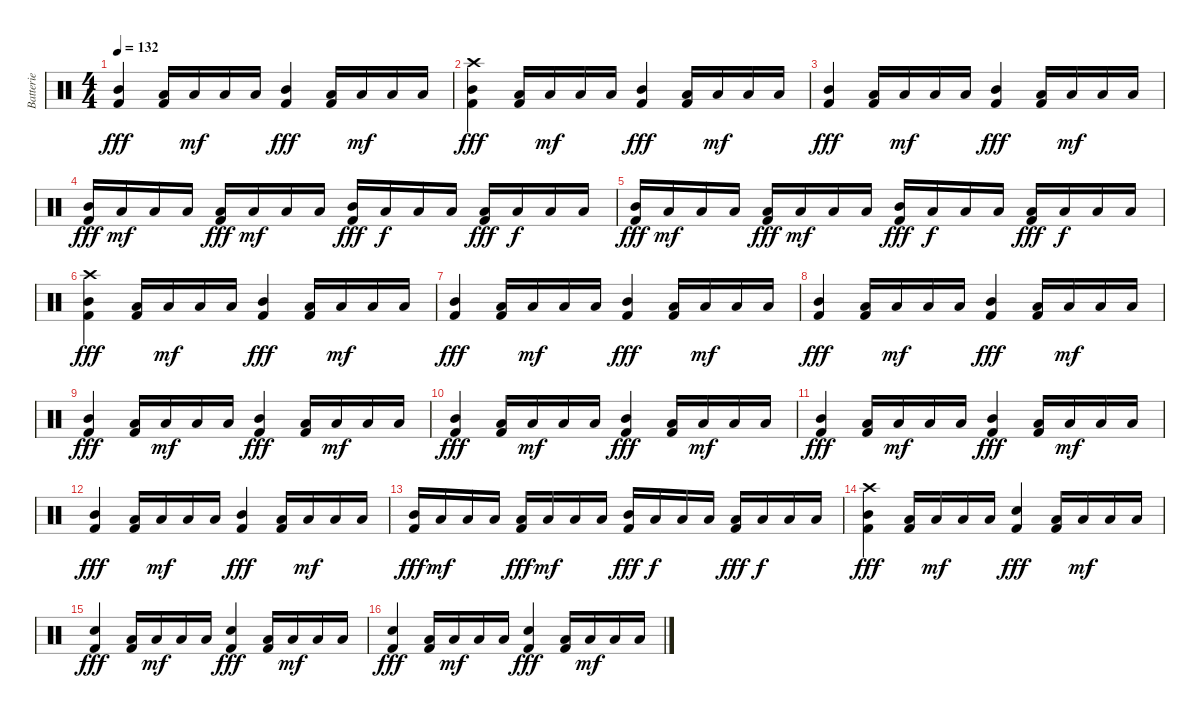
\track ("Batterie" "Batterie") {instrument percussion}
\staff {score}
\articulation defaults
\ts (4 4)
\tempo 132
\clef neutral
\ks c
("Mid Tom (hit)" "Kick (hit) 2").4{dy fff} ("Low Tom (hit)" "Kick (hit) 2").16 "Low Tom (hit)".16{dy mf} "Low Tom (hit)".16 "Low Tom (hit)".16 ("Mid Tom (hit)" "Kick (hit) 2").4{dy fff} ("Low Tom (hit)" "Kick (hit) 2").16 "Low Tom (hit)".16{dy mf} "Low Tom (hit)".16 "Low Tom (hit)".16 |
("Crash high (hit)" "Mid Tom (hit)" "Kick (hit) 2").4{dy fff} ("Low Tom (hit)" "Kick (hit) 2").16 "Low Tom (hit)".16{dy mf} "Low Tom (hit)".16 "Low Tom (hit)".16 ("Mid Tom (hit)" "Kick (hit) 2").4{dy fff} ("Low Tom (hit)" "Kick (hit) 2").16 "Low Tom (hit)".16{dy mf} "Low Tom (hit)".16 "Low Tom (hit)".16 |
("Mid Tom (hit)" "Kick (hit) 2").4{dy fff} ("Low Tom (hit)" "Kick (hit) 2").16 "Low Tom (hit)".16{dy mf} "Low Tom (hit)".16 "Low Tom (hit)".16 ("Mid Tom (hit)" "Kick (hit) 2").4{dy fff} ("Low Tom (hit)" "Kick (hit) 2").16 "Low Tom (hit)".16{dy mf} "Low Tom (hit)".16 "Low Tom (hit)".16 |
("Mid Tom (hit)" "Kick (hit) 2").16{dy fff} "Low Tom (hit)".16{dy mf} "Low Tom (hit)".16 "Low Tom (hit)".16 ("Low Tom (hit)" "Kick (hit) 2").16{dy fff} "Low Tom (hit)".16{dy mf} "Low Tom (hit)".16 "Low Tom (hit)".16 ("Mid Tom (hit)" "Kick (hit) 2").16{dy fff} "Low Tom (hit)".16{dy f} "Low Tom (hit)".16 "Low Tom (hit)".16 ("Low Tom (hit)" "Kick (hit) 2").16{dy fff} "Low Tom (hit)".16{dy f} "Low Tom (hit)".16 "Low Tom (hit)".16 |
("Mid Tom (hit)" "Kick (hit) 2").16{dy fff} "Low Tom (hit)".16{dy mf} "Low Tom (hit)".16 "Low Tom (hit)".16 ("Low Tom (hit)" "Kick (hit) 2").16{dy fff} "Low Tom (hit)".16{dy mf} "Low Tom (hit)".16 "Low Tom (hit)".16 ("Mid Tom (hit)" "Kick (hit) 2").16{dy fff} "Low Tom (hit)".16{dy f} "Low Tom (hit)".16 "Low Tom (hit)".16 ("Low Tom (hit)" "Kick (hit) 2").16{dy fff} "Low Tom (hit)".16{dy f} "Low Tom (hit)".16 "Low Tom (hit)".16 |
("Crash high (hit)" "Mid Tom (hit)" "Kick (hit) 2").4{dy fff} ("Low Tom (hit)" "Kick (hit) 2").16 "Low Tom (hit)".16{dy mf} "Low Tom (hit)".16 "Low Tom (hit)".16 ("Mid Tom (hit)" "Kick (hit) 2").4{dy fff} ("Low Tom (hit)" "Kick (hit) 2").16 "Low Tom (hit)".16{dy mf} "Low Tom (hit)".16 "Low Tom (hit)".16 |
("Mid Tom (hit)" "Kick (hit) 2").4{dy fff} ("Low Tom (hit)" "Kick (hit) 2").16 "Low Tom (hit)".16{dy mf} "Low Tom (hit)".16 "Low Tom (hit)".16 ("Mid Tom (hit)" "Kick (hit) 2").4{dy fff} ("Low Tom (hit)" "Kick (hit) 2").16 "Low Tom (hit)".16{dy mf} "Low Tom (hit)".16 "Low Tom (hit)".16 |
("Mid Tom (hit)" "Kick (hit) 2").4{dy fff} ("Low Tom (hit)" "Kick (hit) 2").16 "Low Tom (hit)".16{dy mf} "Low Tom (hit)".16 "Low Tom (hit)".16 ("Mid Tom (hit)" "Kick (hit) 2").4{dy fff} ("Low Tom (hit)" "Kick (hit) 2").16 "Low Tom (hit)".16{dy mf} "Low Tom (hit)".16 "Low Tom (hit)".16 |
("Mid Tom (hit)" "Kick (hit) 2").4{dy fff} ("Low Tom (hit)" "Kick (hit) 2").16 "Low Tom (hit)".16{dy mf} "Low Tom (hit)".16 "Low Tom (hit)".16 ("Mid Tom (hit)" "Kick (hit) 2").4{dy fff} ("Low Tom (hit)" "Kick (hit) 2").16 "Low Tom (hit)".16{dy mf} "Low Tom (hit)".16 "Low Tom (hit)".16 |
("Mid Tom (hit)" "Kick (hit) 2").4{dy fff} ("Low Tom (hit)" "Kick (hit) 2").16 "Low Tom (hit)".16{dy mf} "Low Tom (hit)".16 "Low Tom (hit)".16 ("Mid Tom (hit)" "Kick (hit) 2").4{dy fff} ("Low Tom (hit)" "Kick (hit) 2").16 "Low Tom (hit)".16{dy mf} "Low Tom (hit)".16 "Low Tom (hit)".16 |
("Mid Tom (hit)" "Kick (hit) 2").4{dy fff} ("Low Tom (hit)" "Kick (hit) 2").16 "Low Tom (hit)".16{dy mf} "Low Tom (hit)".16 "Low Tom (hit)".16 ("Mid Tom (hit)" "Kick (hit) 2").4{dy fff} ("Low Tom (hit)" "Kick (hit) 2").16 "Low Tom (hit)".16{dy mf} "Low Tom (hit)".16 "Low Tom (hit)".16 |
("Mid Tom (hit)" "Kick (hit) 2").4{dy fff} ("Low Tom (hit)" "Kick (hit) 2").16 "Low Tom (hit)".16{dy mf} "Low Tom (hit)".16 "Low Tom (hit)".16 ("Mid Tom (hit)" "Kick (hit) 2").4{dy fff} ("Low Tom (hit)" "Kick (hit) 2").16 "Low Tom (hit)".16{dy mf} "Low Tom (hit)".16 "Low Tom (hit)".16 |
("Mid Tom (hit)" "Kick (hit) 2").16{dy fff} "Low Tom (hit)".16{dy mf} "Low Tom (hit)".16 "Low Tom (hit)".16 ("Low Tom (hit)" "Kick (hit) 2").16{dy fff} "Low Tom (hit)".16{dy mf} "Low Tom (hit)".16 "Low Tom (hit)".16 ("Mid Tom (hit)" "Kick (hit) 2").16{dy fff} "Low Tom (hit)".16{dy f} "Low Tom (hit)".16 "Low Tom (hit)".16 ("Low Tom (hit)" "Kick (hit) 2").16{dy fff} "Low Tom (hit)".16{dy f} "Low Tom (hit)".16 "Low Tom (hit)".16 |
("Crash high (hit)" "Mid Tom (hit)" "Kick (hit) 2").4{dy fff} ("Low Tom (hit)" "Kick (hit) 2").16 "Low Tom (hit)".16{dy mf} "Low Tom (hit)".16 "Low Tom (hit)".16 ("Electric Snare (hit)" "Kick (hit) 2").4{dy fff} ("Low Tom (hit)" "Kick (hit) 2").16 "Low Tom (hit)".16{dy mf} "Low Tom (hit)".16 "Low Tom (hit)".16 |
("Electric Snare (hit)" "Kick (hit) 2").4{dy fff} ("Low Tom (hit)" "Kick (hit) 2").16 "Low Tom (hit)".16{dy mf} "Low Tom (hit)".16 "Low Tom (hit)".16 ("Electric Snare (hit)" "Kick (hit) 2").4{dy fff} ("Low Tom (hit)" "Kick (hit) 2").16 "Low Tom (hit)".16{dy mf} "Low Tom (hit)".16 "Low Tom (hit)".16 |
("Electric Snare (hit)" "Kick (hit) 2").4{dy fff} ("Low Tom (hit)" "Kick (hit) 2").16 "Low Tom (hit)".16{dy mf} "Low Tom (hit)".16 "Low Tom (hit)".16 ("Electric Snare (hit)" "Kick (hit) 2").4{dy fff} ("Low Tom (hit)" "Kick (hit) 2").16 "Low Tom (hit)".16{dy mf} "Low Tom (hit)".16 "Low Tom (hit)".16
